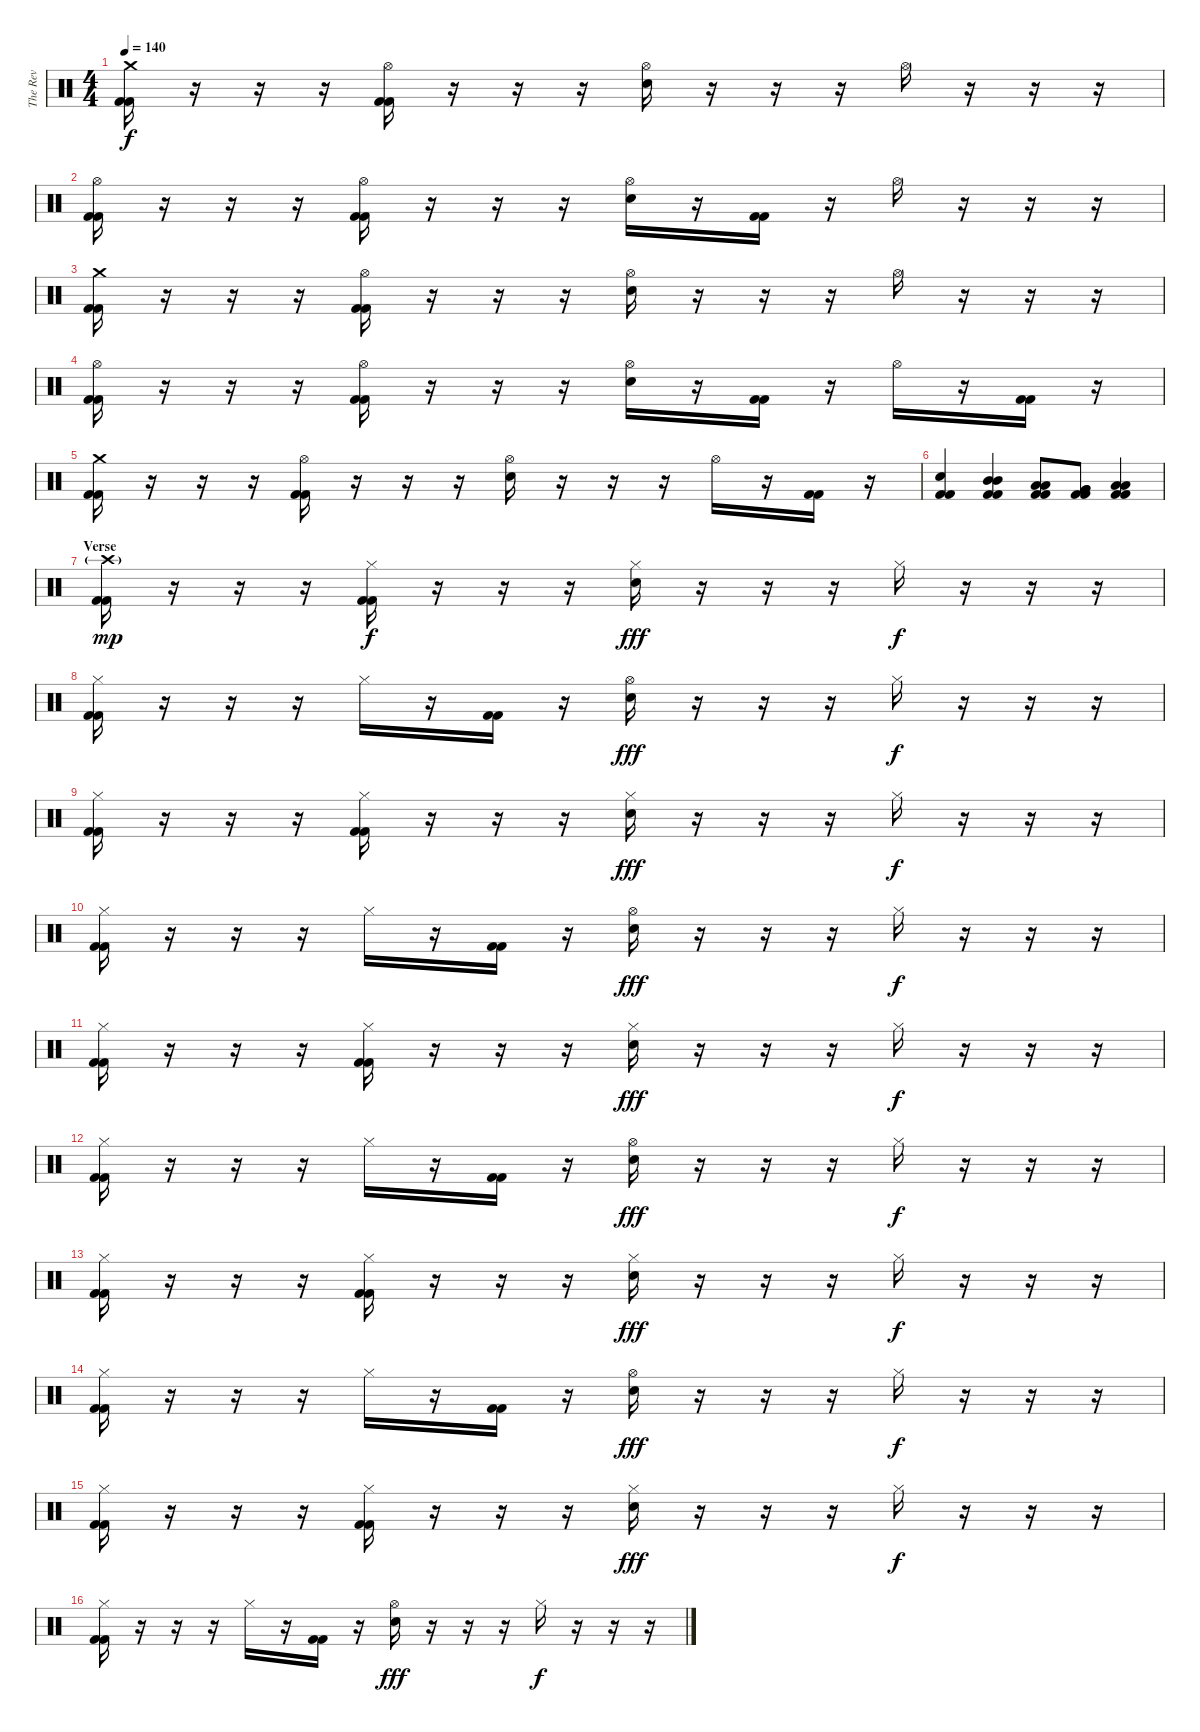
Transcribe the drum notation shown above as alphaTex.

\track ("The Rev" "The Rev") {instrument percussion}
\staff {score}
\articulation defaults
\ts (4 4)
\tempo 140
\clef neutral
\ks c
("Crash medium (hit)" "Kick (hit) 2" "Kick (hit) 2").16{dy f} r.16 r.16 r.16 ("Hi-Hat (open)" "Kick (hit) 2" "Kick (hit) 2").16 r.16 r.16 r.16 ("Hi-Hat (open)" "Electric Snare (hit)").16 r.16 r.16 r.16 "Hi-Hat (open)".16 r.16 r.16 r.16 |
("Hi-Hat (open)" "Kick (hit) 2" "Kick (hit) 2").16 r.16 r.16 r.16 ("Hi-Hat (open)" "Kick (hit) 2" "Kick (hit) 2").16 r.16 r.16 r.16 ("Hi-Hat (open)" "Electric Snare (hit)").16 r.16 ("Kick (hit) 2" "Kick (hit) 2").16 r.16 "Hi-Hat (open)".16 r.16 r.16 r.16 |
("Crash medium (hit)" "Kick (hit) 2" "Kick (hit) 2").16 r.16 r.16 r.16 ("Hi-Hat (open)" "Kick (hit) 2" "Kick (hit) 2").16 r.16 r.16 r.16 ("Hi-Hat (open)" "Electric Snare (hit)").16 r.16 r.16 r.16 "Hi-Hat (open)".16 r.16 r.16 r.16 |
("Hi-Hat (open)" "Kick (hit) 2" "Kick (hit) 2").16 r.16 r.16 r.16 ("Hi-Hat (open)" "Kick (hit) 2" "Kick (hit) 2").16 r.16 r.16 r.16 ("Hi-Hat (open)" "Electric Snare (hit)").16 r.16 ("Kick (hit) 2" "Kick (hit) 2").16 r.16 "Hi-Hat (open)".16 r.16 ("Kick (hit) 2" "Kick (hit) 2").16 r.16 |
("Crash medium (hit)" "Kick (hit) 2" "Kick (hit) 2").16 r.16 r.16 r.16 ("Hi-Hat (open)" "Kick (hit) 2" "Kick (hit) 2").16 r.16 r.16 r.16 ("Hi-Hat (open)" "Electric Snare (hit)").16 r.16 r.16 r.16 "Hi-Hat (open)".16 r.16 ("Kick (hit) 2" "Kick (hit) 2").16 r.16 |
("Electric Snare (hit)" "Kick (hit) 2" "Kick (hit) 2").4 ("Mid Tom (hit)" "Mid Tom (hit)" "Kick (hit) 2" "Kick (hit) 2").4 ("Low Tom (hit)" "Low Tom (hit)" "Kick (hit) 2" "Kick (hit) 2").8 ("Very Low Tom (hit)" "Very Low Tom (hit)" "Kick (hit) 2" "Kick (hit) 2").8 ("Low Floor Tom (hit)" "Low Floor Tom (hit)" "Kick (hit) 2" "Kick (hit) 2").4 |
\section ("" "Verse")
("Crash high (hit)"{g} "Kick (hit) 2" "Kick (hit) 2").16{dy mp} r.16 r.16 r.16 ("Hi-Hat (closed)" "Kick (hit) 2" "Kick (hit) 2").16{dy f} r.16 r.16 r.16 ("Hi-Hat (closed)" "Electric Snare (hit)").16{dy fff} r.16 r.16 r.16 "Hi-Hat (closed)".16{dy f} r.16 r.16 r.16 |
("Hi-Hat (closed)" "Kick (hit) 2" "Kick (hit) 2").16 r.16 r.16 r.16 "Hi-Hat (closed)".16 r.16 ("Kick (hit) 2" "Kick (hit) 2").16 r.16 ("Hi-Hat (open)" "Electric Snare (hit)").16{dy fff} r.16 r.16 r.16 "Hi-Hat (closed)".16{dy f} r.16 r.16 r.16 |
("Hi-Hat (closed)" "Kick (hit) 2" "Kick (hit) 2").16 r.16 r.16 r.16 ("Hi-Hat (closed)" "Kick (hit) 2" "Kick (hit) 2").16 r.16 r.16 r.16 ("Hi-Hat (closed)" "Electric Snare (hit)").16{dy fff} r.16 r.16 r.16 "Hi-Hat (closed)".16{dy f} r.16 r.16 r.16 |
("Hi-Hat (closed)" "Kick (hit) 2" "Kick (hit) 2").16 r.16 r.16 r.16 "Hi-Hat (closed)".16 r.16 ("Kick (hit) 2" "Kick (hit) 2").16 r.16 ("Hi-Hat (open)" "Electric Snare (hit)").16{dy fff} r.16 r.16 r.16 "Hi-Hat (closed)".16{dy f} r.16 r.16 r.16 |
("Hi-Hat (closed)" "Kick (hit) 2" "Kick (hit) 2").16 r.16 r.16 r.16 ("Hi-Hat (closed)" "Kick (hit) 2" "Kick (hit) 2").16 r.16 r.16 r.16 ("Hi-Hat (closed)" "Electric Snare (hit)").16{dy fff} r.16 r.16 r.16 "Hi-Hat (closed)".16{dy f} r.16 r.16 r.16 |
("Hi-Hat (closed)" "Kick (hit) 2" "Kick (hit) 2").16 r.16 r.16 r.16 "Hi-Hat (closed)".16 r.16 ("Kick (hit) 2" "Kick (hit) 2").16 r.16 ("Hi-Hat (open)" "Electric Snare (hit)").16{dy fff} r.16 r.16 r.16 "Hi-Hat (closed)".16{dy f} r.16 r.16 r.16 |
("Hi-Hat (closed)" "Kick (hit) 2" "Kick (hit) 2").16 r.16 r.16 r.16 ("Hi-Hat (closed)" "Kick (hit) 2" "Kick (hit) 2").16 r.16 r.16 r.16 ("Hi-Hat (closed)" "Electric Snare (hit)").16{dy fff} r.16 r.16 r.16 "Hi-Hat (closed)".16{dy f} r.16 r.16 r.16 |
("Hi-Hat (closed)" "Kick (hit) 2" "Kick (hit) 2").16 r.16 r.16 r.16 "Hi-Hat (closed)".16 r.16 ("Kick (hit) 2" "Kick (hit) 2").16 r.16 ("Hi-Hat (open)" "Electric Snare (hit)").16{dy fff} r.16 r.16 r.16 "Hi-Hat (closed)".16{dy f} r.16 r.16 r.16 |
("Hi-Hat (closed)" "Kick (hit) 2" "Kick (hit) 2").16 r.16 r.16 r.16 ("Hi-Hat (closed)" "Kick (hit) 2" "Kick (hit) 2").16 r.16 r.16 r.16 ("Hi-Hat (closed)" "Electric Snare (hit)").16{dy fff} r.16 r.16 r.16 "Hi-Hat (closed)".16{dy f} r.16 r.16 r.16 |
("Hi-Hat (closed)" "Kick (hit) 2" "Kick (hit) 2").16 r.16 r.16 r.16 "Hi-Hat (closed)".16 r.16 ("Kick (hit) 2" "Kick (hit) 2").16 r.16 ("Hi-Hat (open)" "Electric Snare (hit)").16{dy fff} r.16 r.16 r.16 "Hi-Hat (closed)".16{dy f} r.16 r.16 r.16
